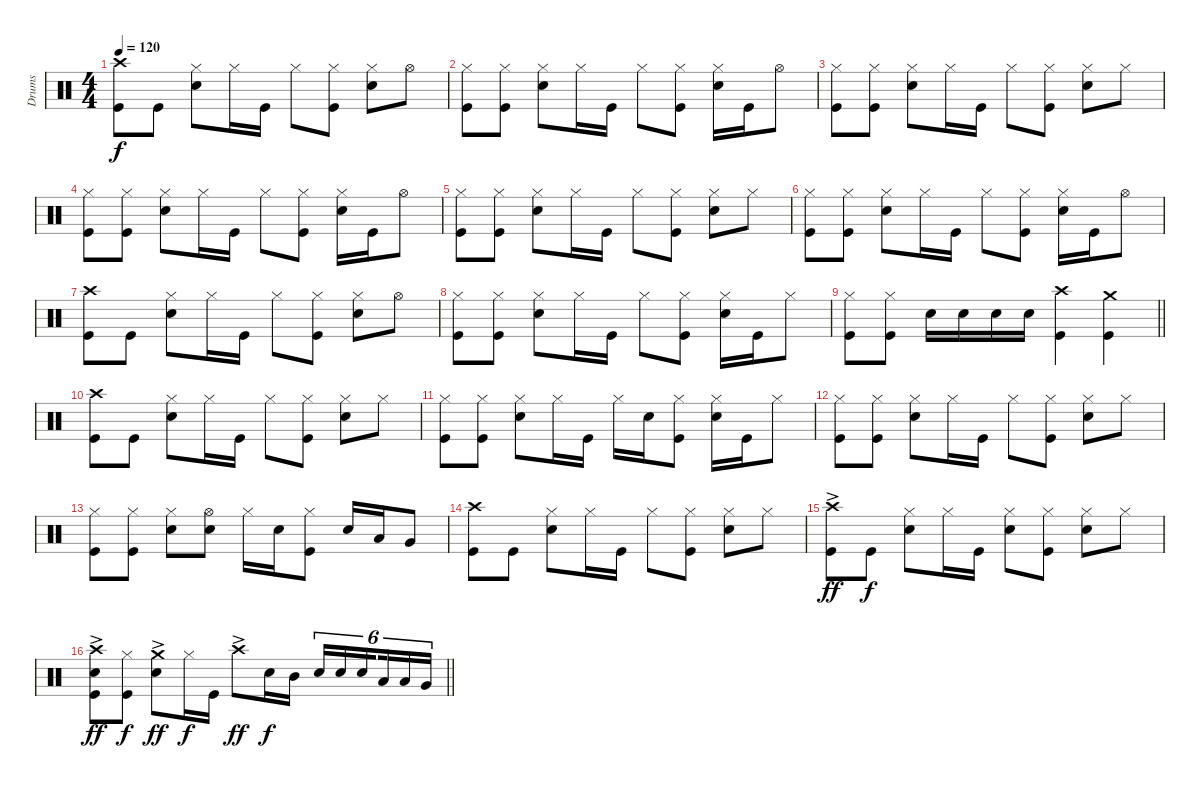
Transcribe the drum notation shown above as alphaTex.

\track ("Drums" "Drums") {instrument percussion}
\staff {score}
\articulation defaults
\ts (4 4)
\tempo 120
\clef neutral
\ks c
("Crash high (hit)" "Kick (hit)").8{dy f} "Kick (hit)".8 ("Snare (hit) 2" "Hi-Hat (closed)").8 "Hi-Hat (closed)".16 "Kick (hit)".16 "Hi-Hat (closed)".8 ("Kick (hit)" "Hi-Hat (closed)").8 ("Snare (hit) 2" "Hi-Hat (closed)").8 "Hi-Hat (open)".8 |
("Hi-Hat (closed)" "Kick (hit)").8 ("Hi-Hat (closed)" "Kick (hit)").8 ("Hi-Hat (closed)" "Snare (hit) 2").8 "Hi-Hat (closed)".16 "Kick (hit)".16 "Hi-Hat (closed)".8 ("Hi-Hat (closed)" "Kick (hit)").8 ("Snare (hit) 2" "Hi-Hat (closed)").16 "Kick (hit)".16 "Hi-Hat (open)".8 |
("Kick (hit)" "Hi-Hat (closed)").8 ("Kick (hit)" "Hi-Hat (closed)").8 ("Snare (hit) 2" "Hi-Hat (closed)").8 "Hi-Hat (closed)".16 "Kick (hit)".16 "Hi-Hat (closed)".8 ("Kick (hit)" "Hi-Hat (closed)").8 ("Snare (hit) 2" "Hi-Hat (closed)").8 "Hi-Hat (closed)".8 |
("Hi-Hat (closed)" "Kick (hit)").8 ("Hi-Hat (closed)" "Kick (hit)").8 ("Hi-Hat (closed)" "Snare (hit) 2").8 "Hi-Hat (closed)".16 "Kick (hit)".16 "Hi-Hat (closed)".8 ("Hi-Hat (closed)" "Kick (hit)").8 ("Snare (hit) 2" "Hi-Hat (closed)").16 "Kick (hit)".16 "Hi-Hat (open)".8 |
("Kick (hit)" "Hi-Hat (closed)").8 ("Kick (hit)" "Hi-Hat (closed)").8 ("Snare (hit) 2" "Hi-Hat (closed)").8 "Hi-Hat (closed)".16 "Kick (hit)".16 "Hi-Hat (closed)".8 ("Kick (hit)" "Hi-Hat (closed)").8 ("Snare (hit) 2" "Hi-Hat (closed)").8 "Hi-Hat (closed)".8 |
("Hi-Hat (closed)" "Kick (hit)").8 ("Hi-Hat (closed)" "Kick (hit)").8 ("Hi-Hat (closed)" "Snare (hit) 2").8 "Hi-Hat (closed)".16 "Kick (hit)".16 "Hi-Hat (closed)".8 ("Hi-Hat (closed)" "Kick (hit)").8 ("Snare (hit) 2" "Hi-Hat (closed)").16 "Kick (hit)".16 "Hi-Hat (open)".8 |
("Crash high (hit)" "Kick (hit)").8 "Kick (hit)".8 ("Snare (hit) 2" "Hi-Hat (closed)").8 "Hi-Hat (closed)".16 "Kick (hit)".16 "Hi-Hat (closed)".8 ("Kick (hit)" "Hi-Hat (closed)").8 ("Snare (hit) 2" "Hi-Hat (closed)").8 "Hi-Hat (open)".8 |
("Hi-Hat (closed)" "Kick (hit)").8 ("Hi-Hat (closed)" "Kick (hit)").8 ("Hi-Hat (closed)" "Snare (hit) 2").8 "Hi-Hat (closed)".16 "Kick (hit)".16 "Hi-Hat (closed)".8 ("Hi-Hat (closed)" "Kick (hit)").8 ("Snare (hit) 2" "Hi-Hat (closed)").16 "Kick (hit)".16 "Hi-Hat (closed)".8 |
\barLineRight lightlight
("Hi-Hat (closed)" "Kick (hit)").8 ("Hi-Hat (closed)" "Kick (hit)").8 "Snare (hit) 2".16 "Snare (hit) 2".16 "Snare (hit) 2".16 "Snare (hit) 2".16 ("Crash high (hit)" "Kick (hit)").4 ("Crash medium (hit)" "Kick (hit)").4 |
("Crash high (hit)" "Kick (hit)").8 "Kick (hit)".8 ("Snare (hit) 2" "Hi-Hat (closed)").8 "Hi-Hat (closed)".16 "Kick (hit)".16 "Hi-Hat (closed)".8 ("Kick (hit)" "Hi-Hat (closed)").8 ("Snare (hit) 2" "Hi-Hat (closed)").8 "Hi-Hat (closed)".8 |
("Hi-Hat (closed)" "Kick (hit)").8 ("Hi-Hat (closed)" "Kick (hit)").8 ("Hi-Hat (closed)" "Snare (hit) 2").8 "Hi-Hat (closed)".16 "Kick (hit)".16 "Hi-Hat (closed)".16 "Snare (hit) 2".16 ("Hi-Hat (closed)" "Kick (hit)").8 ("Snare (hit) 2" "Hi-Hat (closed)").16 "Kick (hit)".16 "Hi-Hat (closed)".8 |
("Kick (hit)" "Hi-Hat (closed)").8 ("Kick (hit)" "Hi-Hat (closed)").8 ("Snare (hit) 2" "Hi-Hat (closed)").8 "Hi-Hat (closed)".16 "Kick (hit)".16 "Hi-Hat (closed)".8 ("Kick (hit)" "Hi-Hat (closed)").8 ("Snare (hit) 2" "Hi-Hat (closed)").8 "Hi-Hat (closed)".8 |
("Hi-Hat (closed)" "Kick (hit)").8 ("Hi-Hat (closed)" "Kick (hit)").8 ("Hi-Hat (closed)" "Snare (hit) 2").8 ("Hi-Hat (open)" "Snare (hit) 2").8 "Hi-Hat (closed)".16 "Snare (hit) 2".16 ("Hi-Hat (closed)" "Kick (hit)").8 "Snare (hit) 2".16 "Low Tom (hit)".16 "Very Low Tom (hit)".8 |
("Crash high (hit)" "Kick (hit)").8 "Kick (hit)".8 ("Snare (hit) 2" "Hi-Hat (closed)").8 "Hi-Hat (closed)".16 "Kick (hit)".16 "Hi-Hat (closed)".8 ("Kick (hit)" "Hi-Hat (closed)").8 ("Snare (hit) 2" "Hi-Hat (closed)").8 "Hi-Hat (closed)".8 |
("Crash high (hit)"{ac} "Kick (hit)").8{dy ff} "Kick (hit)".8{dy f} ("Hi-Hat (closed)" "Snare (hit) 2").8 "Hi-Hat (closed)".16 "Kick (hit)".16 ("Hi-Hat (closed)" "Snare (hit) 2").8 ("Hi-Hat (closed)" "Kick (hit)").8 ("Hi-Hat (closed)" "Snare (hit) 2").8 "Hi-Hat (closed)".8 |
\barLineRight lightlight
("Crash high (hit)" "Kick (hit)" "Snare (hit) 2"{ac}).8{dy ff} ("Kick (hit)" "Hi-Hat (closed)").8{dy f} ("Crash medium (hit)" "Snare (hit) 2"{ac}).8{dy ff} "Hi-Hat (closed)".16{dy f} "Kick (hit)".16 "Crash high (hit)"{ac}.8{dy ff} "Snare (hit) 2".16{dy f} "Mid Tom (hit)".16 "Snare (hit) 2".16{tu (6 4)} "Snare (hit) 2".16{tu (6 4)} "Snare (hit) 2".16{tu (6 4) beam splitsecondary} "Low Tom (hit)".16{tu (6 4)} "Low Tom (hit)".16{tu (6 4)} "Very Low Tom (hit)".16{tu (6 4)}
